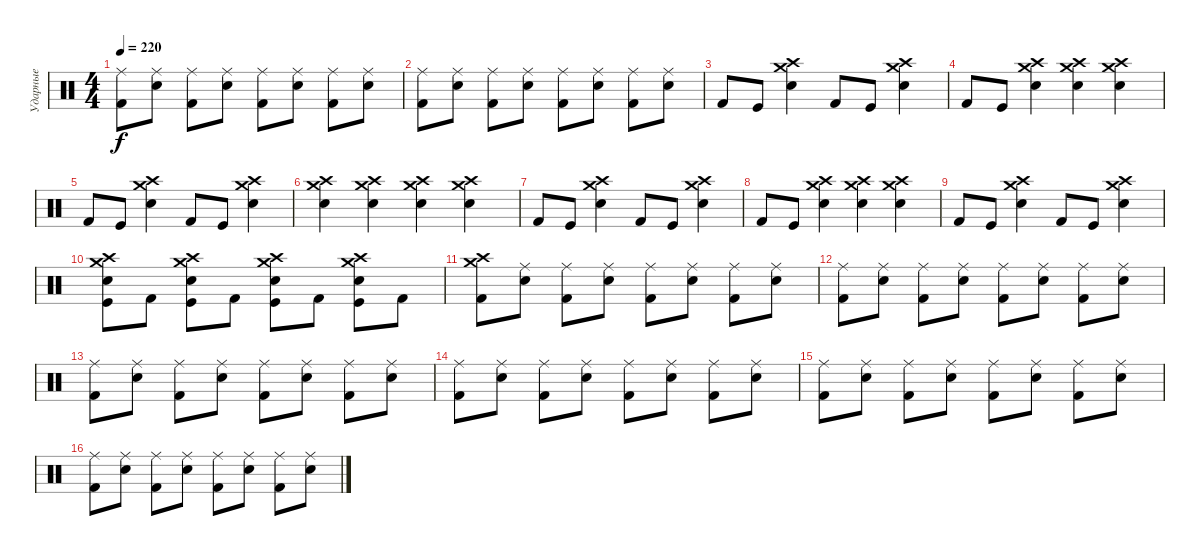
\track ("Ударные" "Ударные") {instrument percussion}
\staff {score}
\articulation defaults
\ts (4 4)
\tempo 220
\clef neutral
\ks c
("Ride (middle)" "Kick (hit) 2").8{dy f} ("Ride (middle)" "Snare (hit) 2").8 ("Ride (middle)" "Kick (hit) 2").8 ("Ride (middle)" "Snare (hit) 2").8 ("Ride (middle)" "Kick (hit) 2").8 ("Ride (middle)" "Snare (hit) 2").8 ("Ride (middle)" "Kick (hit) 2").8 ("Ride (middle)" "Snare (hit) 2").8 |
("Ride (middle)" "Kick (hit) 2").8 ("Ride (middle)" "Snare (hit) 2").8 ("Ride (middle)" "Kick (hit) 2").8 ("Ride (middle)" "Snare (hit) 2").8 ("Ride (middle)" "Kick (hit) 2").8 ("Ride (middle)" "Snare (hit) 2").8 ("Ride (middle)" "Kick (hit) 2").8 ("Ride (middle)" "Snare (hit) 2").8 |
"Kick (hit) 2".8 "Kick (hit)".8 ("Crash high (hit)" "Snare (hit) 2" "Crash medium (hit)").4 "Kick (hit) 2".8 "Kick (hit)".8 ("Crash high (hit)" "Snare (hit) 2" "Crash medium (hit)").4 |
"Kick (hit) 2".8 "Kick (hit)".8 ("Crash high (hit)" "Snare (hit) 2" "Crash medium (hit)").4 ("Crash high (hit)" "Snare (hit) 2" "Crash medium (hit)").4 ("Crash medium (hit)" "Snare (hit) 2" "Crash high (hit)").4 |
"Kick (hit) 2".8 "Kick (hit)".8 ("Crash high (hit)" "Snare (hit) 2" "Crash medium (hit)").4 "Kick (hit) 2".8 "Kick (hit)".8 ("Crash high (hit)" "Snare (hit) 2" "Crash medium (hit)").4 |
("Crash high (hit)" "Snare (hit) 2" "Crash medium (hit)").4 ("Crash high (hit)" "Snare (hit) 2" "Crash medium (hit)").4 ("Crash high (hit)" "Snare (hit) 2" "Crash medium (hit)").4 ("Crash medium (hit)" "Snare (hit) 2" "Crash high (hit)").4 |
"Kick (hit) 2".8 "Kick (hit)".8 ("Crash high (hit)" "Snare (hit) 2" "Crash medium (hit)").4 "Kick (hit) 2".8 "Kick (hit)".8 ("Crash high (hit)" "Snare (hit) 2" "Crash medium (hit)").4 |
"Kick (hit) 2".8 "Kick (hit)".8 ("Crash high (hit)" "Snare (hit) 2" "Crash medium (hit)").4 ("Crash high (hit)" "Snare (hit) 2" "Crash medium (hit)").4 ("Crash medium (hit)" "Snare (hit) 2" "Crash high (hit)").4 |
"Kick (hit) 2".8 "Kick (hit)".8 ("Crash high (hit)" "Snare (hit) 2" "Crash medium (hit)").4 "Kick (hit) 2".8 "Kick (hit)".8 ("Crash high (hit)" "Snare (hit) 2" "Crash medium (hit)").4 |
("Crash high (hit)" "Snare (hit) 2" "Crash medium (hit)" "Kick (hit)").8 "Kick (hit) 2".8 ("Crash high (hit)" "Snare (hit) 2" "Crash medium (hit)" "Kick (hit)").8 "Kick (hit) 2".8 ("Crash high (hit)" "Snare (hit) 2" "Crash medium (hit)" "Kick (hit)").8 "Kick (hit) 2".8 ("Crash medium (hit)" "Snare (hit) 2" "Crash high (hit)" "Kick (hit)").8 "Kick (hit) 2".8 |
("Crash high (hit)" "Crash medium (hit)" "Kick (hit) 2").8 ("Ride (middle)" "Snare (hit) 2").8 ("Ride (middle)" "Kick (hit) 2").8 ("Ride (middle)" "Snare (hit) 2").8 ("Ride (middle)" "Kick (hit) 2").8 ("Ride (middle)" "Snare (hit) 2").8 ("Ride (middle)" "Kick (hit) 2").8 ("Ride (middle)" "Snare (hit) 2").8 |
("Ride (middle)" "Kick (hit) 2").8 ("Ride (middle)" "Snare (hit) 2").8 ("Ride (middle)" "Kick (hit) 2").8 ("Ride (middle)" "Snare (hit) 2").8 ("Ride (middle)" "Kick (hit) 2").8 ("Ride (middle)" "Snare (hit) 2").8 ("Ride (middle)" "Kick (hit) 2").8 ("Ride (middle)" "Snare (hit) 2").8 |
("Ride (middle)" "Kick (hit) 2").8 ("Ride (middle)" "Snare (hit) 2").8 ("Ride (middle)" "Kick (hit) 2").8 ("Ride (middle)" "Snare (hit) 2").8 ("Ride (middle)" "Kick (hit) 2").8 ("Ride (middle)" "Snare (hit) 2").8 ("Ride (middle)" "Kick (hit) 2").8 ("Ride (middle)" "Snare (hit) 2").8 |
("Ride (middle)" "Kick (hit) 2").8 ("Ride (middle)" "Snare (hit) 2").8 ("Ride (middle)" "Kick (hit) 2").8 ("Ride (middle)" "Snare (hit) 2").8 ("Ride (middle)" "Kick (hit) 2").8 ("Ride (middle)" "Snare (hit) 2").8 ("Ride (middle)" "Kick (hit) 2").8 ("Ride (middle)" "Snare (hit) 2").8 |
("Ride (middle)" "Kick (hit) 2").8 ("Ride (middle)" "Snare (hit) 2").8 ("Ride (middle)" "Kick (hit) 2").8 ("Ride (middle)" "Snare (hit) 2").8 ("Ride (middle)" "Kick (hit) 2").8 ("Ride (middle)" "Snare (hit) 2").8 ("Ride (middle)" "Kick (hit) 2").8 ("Ride (middle)" "Snare (hit) 2").8 |
("Ride (middle)" "Kick (hit) 2").8 ("Ride (middle)" "Snare (hit) 2").8 ("Ride (middle)" "Kick (hit) 2").8 ("Ride (middle)" "Snare (hit) 2").8 ("Ride (middle)" "Kick (hit) 2").8 ("Ride (middle)" "Snare (hit) 2").8 ("Ride (middle)" "Kick (hit) 2").8 ("Ride (middle)" "Snare (hit) 2").8
